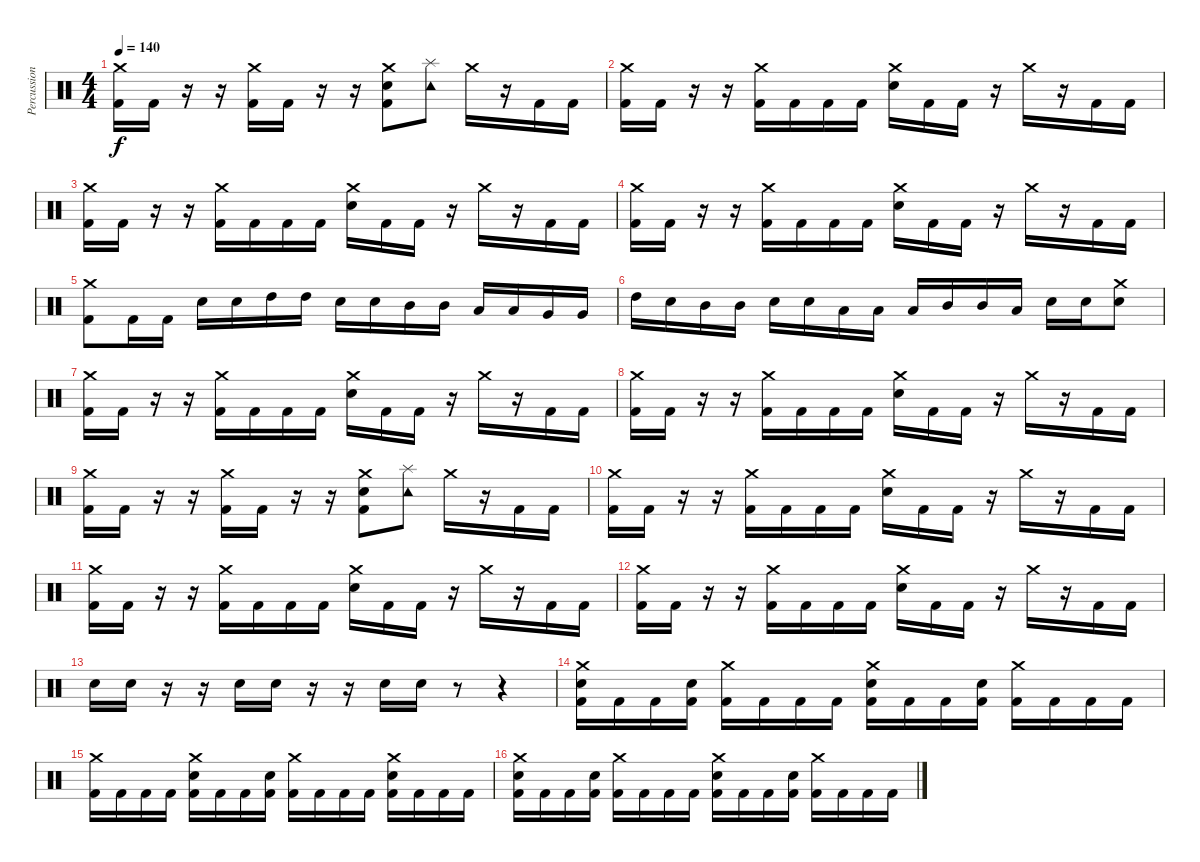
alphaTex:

\track ("Percussion" "Percussion") {instrument percussion}
\staff {score}
\articulation defaults
\ts (4 4)
\tempo 140
\clef neutral
\ks c
("Crash medium (hit)" "Kick (hit) 2").16{dy f} "Kick (hit) 2".16 r.16 r.16 ("Crash medium (hit)" "Kick (hit) 2").16 "Kick (hit) 2".16 r.16 r.16 ("Crash medium (hit)" "Electric Snare (hit)" "Kick (hit) 2").8 ("Splash (hit)" "Tambourine (hit)").8 "Crash medium (hit)".16 r.16 "Kick (hit) 2".16 "Kick (hit) 2".16 |
("Crash medium (hit)" "Kick (hit) 2").16 "Kick (hit) 2".16 r.16 r.16 ("Crash medium (hit)" "Kick (hit) 2").16 "Kick (hit) 2".16 "Kick (hit) 2".16 "Kick (hit) 2".16 ("Crash medium (hit)" "Electric Snare (hit)").16 "Kick (hit) 2".16 "Kick (hit) 2".16 r.16 "Crash medium (hit)".16 r.16 "Kick (hit) 2".16 "Kick (hit) 2".16 |
("Crash medium (hit)" "Kick (hit) 2").16 "Kick (hit) 2".16 r.16 r.16 ("Crash medium (hit)" "Kick (hit) 2").16 "Kick (hit) 2".16 "Kick (hit) 2".16 "Kick (hit) 2".16 ("Crash medium (hit)" "Electric Snare (hit)").16 "Kick (hit) 2".16 "Kick (hit) 2".16 r.16 "Crash medium (hit)".16 r.16 "Kick (hit) 2".16 "Kick (hit) 2".16 |
("Crash medium (hit)" "Kick (hit) 2").16 "Kick (hit) 2".16 r.16 r.16 ("Crash medium (hit)" "Kick (hit) 2").16 "Kick (hit) 2".16 "Kick (hit) 2".16 "Kick (hit) 2".16 ("Crash medium (hit)" "Electric Snare (hit)").16 "Kick (hit) 2".16 "Kick (hit) 2".16 r.16 "Crash medium (hit)".16 r.16 "Kick (hit) 2".16 "Kick (hit) 2".16 |
("Crash medium (hit)" "Kick (hit) 2").8 "Kick (hit) 2".16 "Kick (hit) 2".16 "Electric Snare (hit)".16 "Electric Snare (hit)".16 "High Tom (hit)".16 "High Tom (hit)".16 "Electric Snare (hit)".16 "Electric Snare (hit)".16 "Mid Tom (hit)".16 "Mid Tom (hit)".16 "Low Tom (hit)".16 "Low Tom (hit)".16 "Very Low Tom (hit)".16 "Very Low Tom (hit)".16 |
"High Tom (hit)".16 "Electric Snare (hit)".16 "Mid Tom (hit)".16 "Mid Tom (hit)".16 "Electric Snare (hit)".16 "Electric Snare (hit)".16 "Low Tom (hit)".16 "Low Tom (hit)".16 "Low Tom (hit)".16 "Mid Tom (hit)".16 "Mid Tom (hit)".16 "Low Tom (hit)".16 "Electric Snare (hit)".16 "Electric Snare (hit)".16 ("Crash medium (hit)" "Electric Snare (hit)").8 |
("Crash medium (hit)" "Kick (hit) 2").16 "Kick (hit) 2".16 r.16 r.16 ("Crash medium (hit)" "Kick (hit) 2").16 "Kick (hit) 2".16 "Kick (hit) 2".16 "Kick (hit) 2".16 ("Crash medium (hit)" "Electric Snare (hit)").16 "Kick (hit) 2".16 "Kick (hit) 2".16 r.16 "Crash medium (hit)".16 r.16 "Kick (hit) 2".16 "Kick (hit) 2".16 |
("Crash medium (hit)" "Kick (hit) 2").16 "Kick (hit) 2".16 r.16 r.16 ("Crash medium (hit)" "Kick (hit) 2").16 "Kick (hit) 2".16 "Kick (hit) 2".16 "Kick (hit) 2".16 ("Crash medium (hit)" "Electric Snare (hit)").16 "Kick (hit) 2".16 "Kick (hit) 2".16 r.16 "Crash medium (hit)".16 r.16 "Kick (hit) 2".16 "Kick (hit) 2".16 |
("Crash medium (hit)" "Kick (hit) 2").16 "Kick (hit) 2".16 r.16 r.16 ("Crash medium (hit)" "Kick (hit) 2").16 "Kick (hit) 2".16 r.16 r.16 ("Crash medium (hit)" "Electric Snare (hit)" "Kick (hit) 2").8 ("Splash (hit)" "Tambourine (hit)").8 "Crash medium (hit)".16 r.16 "Kick (hit) 2".16 "Kick (hit) 2".16 |
("Crash medium (hit)" "Kick (hit) 2").16 "Kick (hit) 2".16 r.16 r.16 ("Crash medium (hit)" "Kick (hit) 2").16 "Kick (hit) 2".16 "Kick (hit) 2".16 "Kick (hit) 2".16 ("Crash medium (hit)" "Electric Snare (hit)").16 "Kick (hit) 2".16 "Kick (hit) 2".16 r.16 "Crash medium (hit)".16 r.16 "Kick (hit) 2".16 "Kick (hit) 2".16 |
("Crash medium (hit)" "Kick (hit) 2").16 "Kick (hit) 2".16 r.16 r.16 ("Crash medium (hit)" "Kick (hit) 2").16 "Kick (hit) 2".16 "Kick (hit) 2".16 "Kick (hit) 2".16 ("Crash medium (hit)" "Electric Snare (hit)").16 "Kick (hit) 2".16 "Kick (hit) 2".16 r.16 "Crash medium (hit)".16 r.16 "Kick (hit) 2".16 "Kick (hit) 2".16 |
("Crash medium (hit)" "Kick (hit) 2").16 "Kick (hit) 2".16 r.16 r.16 ("Crash medium (hit)" "Kick (hit) 2").16 "Kick (hit) 2".16 "Kick (hit) 2".16 "Kick (hit) 2".16 ("Crash medium (hit)" "Electric Snare (hit)").16 "Kick (hit) 2".16 "Kick (hit) 2".16 r.16 "Crash medium (hit)".16 r.16 "Kick (hit) 2".16 "Kick (hit) 2".16 |
"Electric Snare (hit)".16 "Electric Snare (hit)".16 r.16 r.16 "Electric Snare (hit)".16 "Electric Snare (hit)".16 r.16 r.16 "Electric Snare (hit)".16 "Electric Snare (hit)".16 r.8 r.4 |
("Crash medium (hit)" "Snare (hit) 2" "Kick (hit) 2").16 "Kick (hit) 2".16 "Kick (hit) 2".16 ("Snare (hit) 2" "Kick (hit) 2").16 ("Crash medium (hit)" "Kick (hit) 2").16 "Kick (hit) 2".16 "Kick (hit) 2".16 "Kick (hit) 2".16 ("Crash medium (hit)" "Snare (hit) 2" "Kick (hit) 2").16 "Kick (hit) 2".16 "Kick (hit) 2".16 ("Snare (hit) 2" "Kick (hit) 2").16 ("Crash medium (hit)" "Kick (hit) 2").16 "Kick (hit) 2".16 "Kick (hit) 2".16 "Kick (hit) 2".16 |
("Crash medium (hit)" "Kick (hit) 2").16 "Kick (hit) 2".16 "Kick (hit) 2".16 "Kick (hit) 2".16 ("Crash medium (hit)" "Snare (hit) 2" "Kick (hit) 2").16 "Kick (hit) 2".16 "Kick (hit) 2".16 ("Snare (hit) 2" "Kick (hit) 2").16 ("Crash medium (hit)" "Kick (hit) 2").16 "Kick (hit) 2".16 "Kick (hit) 2".16 "Kick (hit) 2".16 ("Crash medium (hit)" "Snare (hit) 2" "Kick (hit) 2").16 "Kick (hit) 2".16 "Kick (hit) 2".16 "Kick (hit) 2".16 |
("Crash medium (hit)" "Snare (hit) 2" "Kick (hit) 2").16 "Kick (hit) 2".16 "Kick (hit) 2".16 ("Snare (hit) 2" "Kick (hit) 2").16 ("Crash medium (hit)" "Kick (hit) 2").16 "Kick (hit) 2".16 "Kick (hit) 2".16 "Kick (hit) 2".16 ("Crash medium (hit)" "Snare (hit) 2" "Kick (hit) 2").16 "Kick (hit) 2".16 "Kick (hit) 2".16 ("Snare (hit) 2" "Kick (hit) 2").16 ("Crash medium (hit)" "Kick (hit) 2").16 "Kick (hit) 2".16 "Kick (hit) 2".16 "Kick (hit) 2".16
